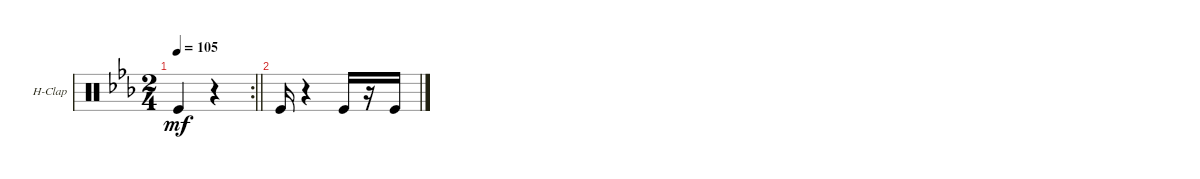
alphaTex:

\defaultSystemsLayout 4
\bracketExtendMode groupsimilarinstruments
\firstSystemTrackNameOrientation horizontal
\otherSystemsTrackNameOrientation horizontal
\track ("Hand Clap" "H-Clap") {instrument percussion}
\staff {score}
\articulation defaults
\rc 2
\ts (2 4)
\tempo 105
\clef neutral
\barLineRight lightlight
\ks cminor "Kick (hit)".4{dy mf}
r.4 |
"Kick (hit)".16 r.4 "Kick (hit)".16 r.16 "Kick (hit)".16
